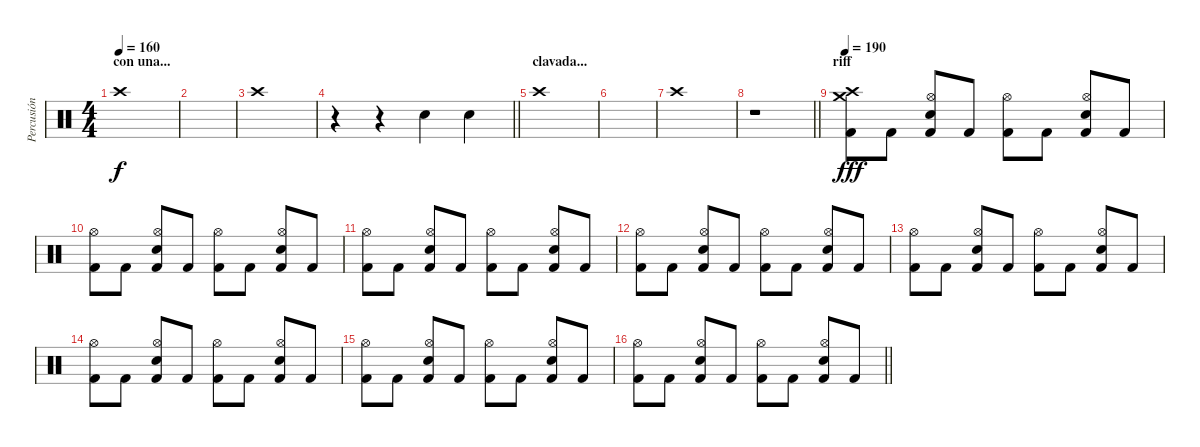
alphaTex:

\track ("Percusión" "Percusión") {instrument percussion}
\staff {score}
\articulation defaults
\ts (4 4)
\section ("" "con una...")
\tempo 160
\clef neutral
\ks c "Crash high (hit)".1{dy f}
|
|
"Crash high (hit)".1 |
\barLineRight lightlight
r.4 r.4 "Snare (hit) 2".4 "Snare (hit) 2".4 |
\section ("" "clavada...")
"Crash high (hit)".1 |
|
"Crash high (hit)".1 |
\barLineRight lightlight
r.1 |
\section ("" "riff")
\tempo 190
("Crash high (hit)" "Crash medium (hit)" "Kick (hit) 2").8{dy fff} "Kick (hit) 2".8 ("Hi-Hat (open)" "Electric Snare (hit)" "Kick (hit) 2").8 "Kick (hit) 2".8 ("Hi-Hat (open)" "Kick (hit) 2").8 "Kick (hit) 2".8 ("Hi-Hat (open)" "Electric Snare (hit)" "Kick (hit) 2").8 "Kick (hit) 2".8 |
("Hi-Hat (open)" "Kick (hit) 2").8 "Kick (hit) 2".8 ("Hi-Hat (open)" "Electric Snare (hit)" "Kick (hit) 2").8 "Kick (hit) 2".8 ("Hi-Hat (open)" "Kick (hit) 2").8 "Kick (hit) 2".8 ("Hi-Hat (open)" "Electric Snare (hit)" "Kick (hit) 2").8 "Kick (hit) 2".8 |
("Hi-Hat (open)" "Kick (hit) 2").8 "Kick (hit) 2".8 ("Hi-Hat (open)" "Electric Snare (hit)" "Kick (hit) 2").8 "Kick (hit) 2".8 ("Hi-Hat (open)" "Kick (hit) 2").8 "Kick (hit) 2".8 ("Hi-Hat (open)" "Electric Snare (hit)" "Kick (hit) 2").8 "Kick (hit) 2".8 |
("Hi-Hat (open)" "Kick (hit) 2").8 "Kick (hit) 2".8 ("Hi-Hat (open)" "Electric Snare (hit)" "Kick (hit) 2").8 "Kick (hit) 2".8 ("Hi-Hat (open)" "Kick (hit) 2").8 "Kick (hit) 2".8 ("Hi-Hat (open)" "Electric Snare (hit)" "Kick (hit) 2").8 "Kick (hit) 2".8 |
("Hi-Hat (open)" "Kick (hit) 2").8 "Kick (hit) 2".8 ("Hi-Hat (open)" "Electric Snare (hit)" "Kick (hit) 2").8 "Kick (hit) 2".8 ("Hi-Hat (open)" "Kick (hit) 2").8 "Kick (hit) 2".8 ("Hi-Hat (open)" "Electric Snare (hit)" "Kick (hit) 2").8 "Kick (hit) 2".8 |
("Hi-Hat (open)" "Kick (hit) 2").8 "Kick (hit) 2".8 ("Hi-Hat (open)" "Electric Snare (hit)" "Kick (hit) 2").8 "Kick (hit) 2".8 ("Hi-Hat (open)" "Kick (hit) 2").8 "Kick (hit) 2".8 ("Hi-Hat (open)" "Electric Snare (hit)" "Kick (hit) 2").8 "Kick (hit) 2".8 |
("Hi-Hat (open)" "Kick (hit) 2").8 "Kick (hit) 2".8 ("Hi-Hat (open)" "Electric Snare (hit)" "Kick (hit) 2").8 "Kick (hit) 2".8 ("Hi-Hat (open)" "Kick (hit) 2").8 "Kick (hit) 2".8 ("Hi-Hat (open)" "Electric Snare (hit)" "Kick (hit) 2").8 "Kick (hit) 2".8 |
\barLineRight lightlight
("Hi-Hat (open)" "Kick (hit) 2").8 "Kick (hit) 2".8 ("Hi-Hat (open)" "Electric Snare (hit)" "Kick (hit) 2").8 "Kick (hit) 2".8 ("Hi-Hat (open)" "Kick (hit) 2").8 "Kick (hit) 2".8 ("Hi-Hat (open)" "Electric Snare (hit)" "Kick (hit) 2").8 "Kick (hit) 2".8
